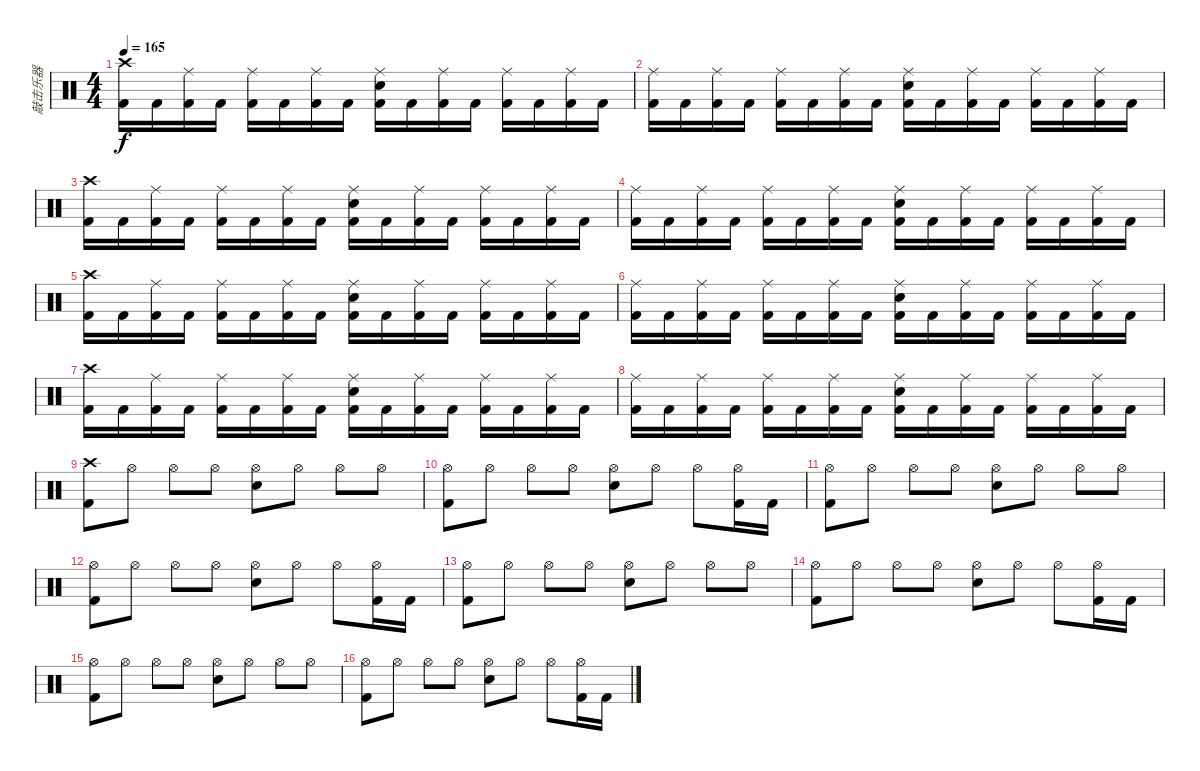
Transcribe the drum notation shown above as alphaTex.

\track ("敲击乐器" "敲击乐器") {instrument percussion}
\staff {score}
\articulation defaults
\ts (4 4)
\tempo 165
\clef neutral
\ks c
("Crash high (hit)" "Kick (hit) 2").16{dy f} "Kick (hit) 2".16 ("Ride (middle)" "Kick (hit) 2").16 "Kick (hit) 2".16 ("Ride (middle)" "Kick (hit) 2").16 "Kick (hit) 2".16 ("Ride (middle)" "Kick (hit) 2").16 "Kick (hit) 2".16 ("Ride (middle)" "Kick (hit) 2" "Snare (hit) 2").16 "Kick (hit) 2".16 ("Ride (middle)" "Kick (hit) 2").16 "Kick (hit) 2".16 ("Ride (middle)" "Kick (hit) 2").16 "Kick (hit) 2".16 ("Ride (middle)" "Kick (hit) 2").16 "Kick (hit) 2".16 |
("Ride (middle)" "Kick (hit) 2").16 "Kick (hit) 2".16 ("Ride (middle)" "Kick (hit) 2").16 "Kick (hit) 2".16 ("Ride (middle)" "Kick (hit) 2").16 "Kick (hit) 2".16 ("Ride (middle)" "Kick (hit) 2").16 "Kick (hit) 2".16 ("Ride (middle)" "Kick (hit) 2" "Snare (hit) 2").16 "Kick (hit) 2".16 ("Ride (middle)" "Kick (hit) 2").16 "Kick (hit) 2".16 ("Ride (middle)" "Kick (hit) 2").16 "Kick (hit) 2".16 ("Ride (middle)" "Kick (hit) 2").16 "Kick (hit) 2".16 |
("Crash high (hit)" "Kick (hit) 2").16 "Kick (hit) 2".16 ("Ride (middle)" "Kick (hit) 2").16 "Kick (hit) 2".16 ("Ride (middle)" "Kick (hit) 2").16 "Kick (hit) 2".16 ("Ride (middle)" "Kick (hit) 2").16 "Kick (hit) 2".16 ("Ride (middle)" "Kick (hit) 2" "Snare (hit) 2").16 "Kick (hit) 2".16 ("Ride (middle)" "Kick (hit) 2").16 "Kick (hit) 2".16 ("Ride (middle)" "Kick (hit) 2").16 "Kick (hit) 2".16 ("Ride (middle)" "Kick (hit) 2").16 "Kick (hit) 2".16 |
("Ride (middle)" "Kick (hit) 2").16 "Kick (hit) 2".16 ("Ride (middle)" "Kick (hit) 2").16 "Kick (hit) 2".16 ("Ride (middle)" "Kick (hit) 2").16 "Kick (hit) 2".16 ("Ride (middle)" "Kick (hit) 2").16 "Kick (hit) 2".16 ("Ride (middle)" "Kick (hit) 2" "Snare (hit) 2").16 "Kick (hit) 2".16 ("Ride (middle)" "Kick (hit) 2").16 "Kick (hit) 2".16 ("Ride (middle)" "Kick (hit) 2").16 "Kick (hit) 2".16 ("Ride (middle)" "Kick (hit) 2").16 "Kick (hit) 2".16 |
("Crash high (hit)" "Kick (hit) 2").16 "Kick (hit) 2".16 ("Ride (middle)" "Kick (hit) 2").16 "Kick (hit) 2".16 ("Ride (middle)" "Kick (hit) 2").16 "Kick (hit) 2".16 ("Ride (middle)" "Kick (hit) 2").16 "Kick (hit) 2".16 ("Ride (middle)" "Kick (hit) 2" "Snare (hit) 2").16 "Kick (hit) 2".16 ("Ride (middle)" "Kick (hit) 2").16 "Kick (hit) 2".16 ("Ride (middle)" "Kick (hit) 2").16 "Kick (hit) 2".16 ("Ride (middle)" "Kick (hit) 2").16 "Kick (hit) 2".16 |
("Ride (middle)" "Kick (hit) 2").16 "Kick (hit) 2".16 ("Ride (middle)" "Kick (hit) 2").16 "Kick (hit) 2".16 ("Ride (middle)" "Kick (hit) 2").16 "Kick (hit) 2".16 ("Ride (middle)" "Kick (hit) 2").16 "Kick (hit) 2".16 ("Ride (middle)" "Kick (hit) 2" "Snare (hit) 2").16 "Kick (hit) 2".16 ("Ride (middle)" "Kick (hit) 2").16 "Kick (hit) 2".16 ("Ride (middle)" "Kick (hit) 2").16 "Kick (hit) 2".16 ("Ride (middle)" "Kick (hit) 2").16 "Kick (hit) 2".16 |
("Crash high (hit)" "Kick (hit) 2").16 "Kick (hit) 2".16 ("Ride (middle)" "Kick (hit) 2").16 "Kick (hit) 2".16 ("Ride (middle)" "Kick (hit) 2").16 "Kick (hit) 2".16 ("Ride (middle)" "Kick (hit) 2").16 "Kick (hit) 2".16 ("Ride (middle)" "Kick (hit) 2" "Snare (hit) 2").16 "Kick (hit) 2".16 ("Ride (middle)" "Kick (hit) 2").16 "Kick (hit) 2".16 ("Ride (middle)" "Kick (hit) 2").16 "Kick (hit) 2".16 ("Ride (middle)" "Kick (hit) 2").16 "Kick (hit) 2".16 |
("Ride (middle)" "Kick (hit) 2").16 "Kick (hit) 2".16 ("Ride (middle)" "Kick (hit) 2").16 "Kick (hit) 2".16 ("Ride (middle)" "Kick (hit) 2").16 "Kick (hit) 2".16 ("Ride (middle)" "Kick (hit) 2").16 "Kick (hit) 2".16 ("Ride (middle)" "Kick (hit) 2" "Snare (hit) 2").16 "Kick (hit) 2".16 ("Ride (middle)" "Kick (hit) 2").16 "Kick (hit) 2".16 ("Ride (middle)" "Kick (hit) 2").16 "Kick (hit) 2".16 ("Ride (middle)" "Kick (hit) 2").16 "Kick (hit) 2".16 |
("Crash high (hit)" "Kick (hit) 2").8 "Hi-Hat (open)".8 "Hi-Hat (open)".8 "Hi-Hat (open)".8 ("Snare (hit) 2" "Hi-Hat (open)").8 "Hi-Hat (open)".8 "Hi-Hat (open)".8 "Hi-Hat (open)".8 |
("Hi-Hat (open)" "Kick (hit) 2").8 "Hi-Hat (open)".8 "Hi-Hat (open)".8 "Hi-Hat (open)".8 ("Snare (hit) 2" "Hi-Hat (open)").8 "Hi-Hat (open)".8 "Hi-Hat (open)".8 ("Kick (hit) 2" "Hi-Hat (open)").16 "Kick (hit) 2".16 |
("Hi-Hat (open)" "Kick (hit) 2").8 "Hi-Hat (open)".8 "Hi-Hat (open)".8 "Hi-Hat (open)".8 ("Snare (hit) 2" "Hi-Hat (open)").8 "Hi-Hat (open)".8 "Hi-Hat (open)".8 "Hi-Hat (open)".8 |
("Hi-Hat (open)" "Kick (hit) 2").8 "Hi-Hat (open)".8 "Hi-Hat (open)".8 "Hi-Hat (open)".8 ("Snare (hit) 2" "Hi-Hat (open)").8 "Hi-Hat (open)".8 "Hi-Hat (open)".8 ("Kick (hit) 2" "Hi-Hat (open)").16 "Kick (hit) 2".16 |
("Hi-Hat (open)" "Kick (hit) 2").8 "Hi-Hat (open)".8 "Hi-Hat (open)".8 "Hi-Hat (open)".8 ("Snare (hit) 2" "Hi-Hat (open)").8 "Hi-Hat (open)".8 "Hi-Hat (open)".8 "Hi-Hat (open)".8 |
("Hi-Hat (open)" "Kick (hit) 2").8 "Hi-Hat (open)".8 "Hi-Hat (open)".8 "Hi-Hat (open)".8 ("Snare (hit) 2" "Hi-Hat (open)").8 "Hi-Hat (open)".8 "Hi-Hat (open)".8 ("Kick (hit) 2" "Hi-Hat (open)").16 "Kick (hit) 2".16 |
("Hi-Hat (open)" "Kick (hit) 2").8 "Hi-Hat (open)".8 "Hi-Hat (open)".8 "Hi-Hat (open)".8 ("Snare (hit) 2" "Hi-Hat (open)").8 "Hi-Hat (open)".8 "Hi-Hat (open)".8 "Hi-Hat (open)".8 |
("Hi-Hat (open)" "Kick (hit) 2").8 "Hi-Hat (open)".8 "Hi-Hat (open)".8 "Hi-Hat (open)".8 ("Snare (hit) 2" "Hi-Hat (open)").8 "Hi-Hat (open)".8 "Hi-Hat (open)".8 ("Kick (hit) 2" "Hi-Hat (open)").16 "Kick (hit) 2".16
